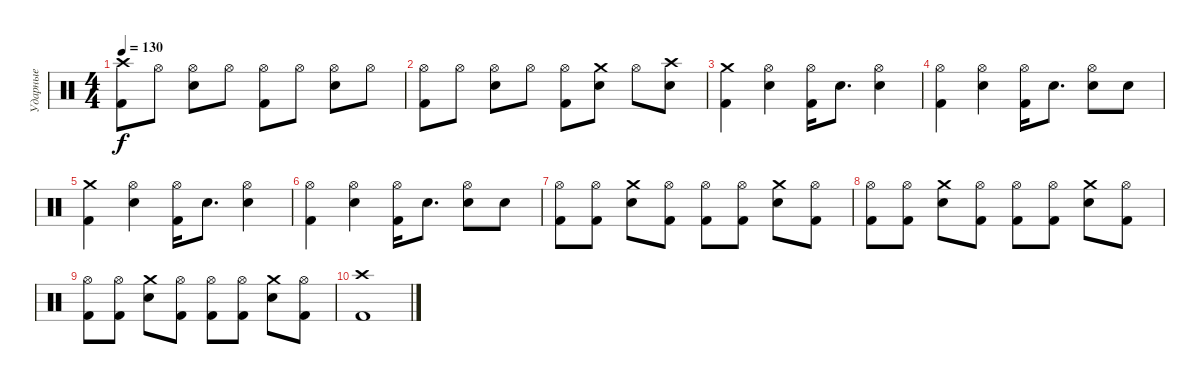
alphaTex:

\track ("Ударные" "Ударные") {instrument percussion}
\staff {score}
\articulation defaults
\ts (4 4)
\tempo 130
\clef neutral
\ks c
("Crash high (hit)" "Kick (hit) 2").8{dy f} "Hi-Hat (open)".8 ("Hi-Hat (open)" "Electric Snare (hit)").8 "Hi-Hat (open)".8 ("Hi-Hat (open)" "Kick (hit) 2").8 "Hi-Hat (open)".8 ("Hi-Hat (open)" "Electric Snare (hit)").8 "Hi-Hat (open)".8 |
("Hi-Hat (open)" "Kick (hit) 2").8 "Hi-Hat (open)".8 ("Hi-Hat (open)" "Electric Snare (hit)").8 "Hi-Hat (open)".8 ("Hi-Hat (open)" "Kick (hit) 2").8 ("Crash medium (hit)" "Electric Snare (hit)").8 "Hi-Hat (open)".8 ("Crash high (hit)" "Electric Snare (hit)").8 |
("Crash medium (hit)" "Kick (hit) 2").4 ("Hi-Hat (open)" "Electric Snare (hit)").4 ("Hi-Hat (open)" "Kick (hit) 2").16 "Electric Snare (hit)".8{d} ("Hi-Hat (open)" "Electric Snare (hit)").4 |
("Hi-Hat (open)" "Kick (hit) 2").4 ("Hi-Hat (open)" "Electric Snare (hit)").4 ("Hi-Hat (open)" "Kick (hit) 2").16 "Electric Snare (hit)".8{d} ("Hi-Hat (open)" "Electric Snare (hit)").8 "Electric Snare (hit)".8 |
("Crash medium (hit)" "Kick (hit) 2").4 ("Hi-Hat (open)" "Electric Snare (hit)").4 ("Hi-Hat (open)" "Kick (hit) 2").16 "Electric Snare (hit)".8{d} ("Hi-Hat (open)" "Electric Snare (hit)").4 |
("Hi-Hat (open)" "Kick (hit) 2").4 ("Hi-Hat (open)" "Electric Snare (hit)").4 ("Hi-Hat (open)" "Kick (hit) 2").16 "Electric Snare (hit)".8{d} ("Hi-Hat (open)" "Electric Snare (hit)").8 "Electric Snare (hit)".8 |
("Hi-Hat (open)" "Kick (hit) 2").8 ("Hi-Hat (open)" "Kick (hit) 2").8 ("Crash medium (hit)" "Electric Snare (hit)").8 ("Hi-Hat (open)" "Kick (hit) 2").8 ("Hi-Hat (open)" "Kick (hit) 2").8 ("Hi-Hat (open)" "Kick (hit) 2").8 ("Crash medium (hit)" "Electric Snare (hit)").8 ("Hi-Hat (open)" "Kick (hit) 2").8 |
("Hi-Hat (open)" "Kick (hit) 2").8 ("Hi-Hat (open)" "Kick (hit) 2").8 ("Crash medium (hit)" "Electric Snare (hit)").8 ("Hi-Hat (open)" "Kick (hit) 2").8 ("Hi-Hat (open)" "Kick (hit) 2").8 ("Hi-Hat (open)" "Kick (hit) 2").8 ("Crash medium (hit)" "Electric Snare (hit)").8 ("Hi-Hat (open)" "Kick (hit) 2").8 |
("Hi-Hat (open)" "Kick (hit) 2").8 ("Hi-Hat (open)" "Kick (hit) 2").8 ("Crash medium (hit)" "Electric Snare (hit)").8 ("Hi-Hat (open)" "Kick (hit) 2").8 ("Hi-Hat (open)" "Kick (hit) 2").8 ("Hi-Hat (open)" "Kick (hit) 2").8 ("Crash medium (hit)" "Electric Snare (hit)").8 ("Hi-Hat (open)" "Kick (hit) 2").8 |
("Crash high (hit)" "Kick (hit) 2").1
